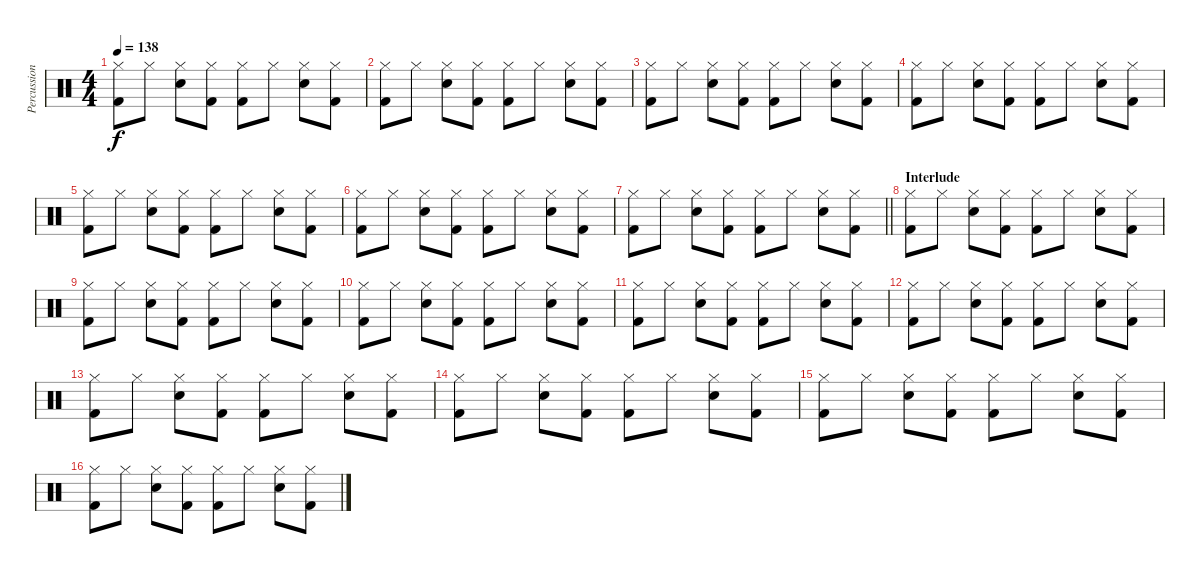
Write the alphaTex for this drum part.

\track ("Percussion" "Percussion") {instrument percussion}
\staff {score}
\articulation defaults
\ts (4 4)
\tempo 138
\clef neutral
\ks c
("Hi-Hat (closed)" "Kick (hit) 2").8{dy f} "Hi-Hat (closed)".8 ("Hi-Hat (closed)" "Electric Snare (hit)").8 ("Hi-Hat (closed)" "Kick (hit) 2").8 ("Hi-Hat (closed)" "Kick (hit) 2").8 "Hi-Hat (closed)".8 ("Hi-Hat (closed)" "Electric Snare (hit)").8 ("Hi-Hat (closed)" "Kick (hit) 2").8 |
("Hi-Hat (closed)" "Kick (hit) 2").8 "Hi-Hat (closed)".8 ("Hi-Hat (closed)" "Electric Snare (hit)").8 ("Hi-Hat (closed)" "Kick (hit) 2").8 ("Hi-Hat (closed)" "Kick (hit) 2").8 "Hi-Hat (closed)".8 ("Hi-Hat (closed)" "Electric Snare (hit)").8 ("Hi-Hat (closed)" "Kick (hit) 2").8 |
("Hi-Hat (closed)" "Kick (hit) 2").8 "Hi-Hat (closed)".8 ("Hi-Hat (closed)" "Electric Snare (hit)").8 ("Hi-Hat (closed)" "Kick (hit) 2").8 ("Hi-Hat (closed)" "Kick (hit) 2").8 "Hi-Hat (closed)".8 ("Hi-Hat (closed)" "Electric Snare (hit)").8 ("Hi-Hat (closed)" "Kick (hit) 2").8 |
("Hi-Hat (closed)" "Kick (hit) 2").8 "Hi-Hat (closed)".8 ("Hi-Hat (closed)" "Electric Snare (hit)").8 ("Hi-Hat (closed)" "Kick (hit) 2").8 ("Hi-Hat (closed)" "Kick (hit) 2").8 "Hi-Hat (closed)".8 ("Hi-Hat (closed)" "Electric Snare (hit)").8 ("Hi-Hat (closed)" "Kick (hit) 2").8 |
("Hi-Hat (closed)" "Kick (hit) 2").8 "Hi-Hat (closed)".8 ("Hi-Hat (closed)" "Electric Snare (hit)").8 ("Hi-Hat (closed)" "Kick (hit) 2").8 ("Hi-Hat (closed)" "Kick (hit) 2").8 "Hi-Hat (closed)".8 ("Hi-Hat (closed)" "Electric Snare (hit)").8 ("Hi-Hat (closed)" "Kick (hit) 2").8 |
("Hi-Hat (closed)" "Kick (hit) 2").8 "Hi-Hat (closed)".8 ("Hi-Hat (closed)" "Electric Snare (hit)").8 ("Hi-Hat (closed)" "Kick (hit) 2").8 ("Hi-Hat (closed)" "Kick (hit) 2").8 "Hi-Hat (closed)".8 ("Hi-Hat (closed)" "Electric Snare (hit)").8 ("Hi-Hat (closed)" "Kick (hit) 2").8 |
\barLineRight lightlight
("Hi-Hat (closed)" "Kick (hit) 2").8 "Hi-Hat (closed)".8 ("Hi-Hat (closed)" "Electric Snare (hit)").8 ("Hi-Hat (closed)" "Kick (hit) 2").8 ("Hi-Hat (closed)" "Kick (hit) 2").8 "Hi-Hat (closed)".8 ("Hi-Hat (closed)" "Electric Snare (hit)").8 ("Hi-Hat (closed)" "Kick (hit) 2").8 |
\section ("" "Interlude")
("Hi-Hat (closed)" "Kick (hit) 2").8 "Hi-Hat (closed)".8 ("Hi-Hat (closed)" "Electric Snare (hit)").8 ("Hi-Hat (closed)" "Kick (hit) 2").8 ("Hi-Hat (closed)" "Kick (hit) 2").8 "Hi-Hat (closed)".8 ("Hi-Hat (closed)" "Electric Snare (hit)").8 ("Hi-Hat (closed)" "Kick (hit) 2").8 |
("Hi-Hat (closed)" "Kick (hit) 2").8 "Hi-Hat (closed)".8 ("Hi-Hat (closed)" "Electric Snare (hit)").8 ("Hi-Hat (closed)" "Kick (hit) 2").8 ("Hi-Hat (closed)" "Kick (hit) 2").8 "Hi-Hat (closed)".8 ("Hi-Hat (closed)" "Electric Snare (hit)").8 ("Hi-Hat (closed)" "Kick (hit) 2").8 |
("Hi-Hat (closed)" "Kick (hit) 2").8 "Hi-Hat (closed)".8 ("Hi-Hat (closed)" "Electric Snare (hit)").8 ("Hi-Hat (closed)" "Kick (hit) 2").8 ("Hi-Hat (closed)" "Kick (hit) 2").8 "Hi-Hat (closed)".8 ("Hi-Hat (closed)" "Electric Snare (hit)").8 ("Hi-Hat (closed)" "Kick (hit) 2").8 |
("Hi-Hat (closed)" "Kick (hit) 2").8 "Hi-Hat (closed)".8 ("Hi-Hat (closed)" "Electric Snare (hit)").8 ("Hi-Hat (closed)" "Kick (hit) 2").8 ("Hi-Hat (closed)" "Kick (hit) 2").8 "Hi-Hat (closed)".8 ("Hi-Hat (closed)" "Electric Snare (hit)").8 ("Hi-Hat (closed)" "Kick (hit) 2").8 |
("Hi-Hat (closed)" "Kick (hit) 2").8 "Hi-Hat (closed)".8 ("Hi-Hat (closed)" "Electric Snare (hit)").8 ("Hi-Hat (closed)" "Kick (hit) 2").8 ("Hi-Hat (closed)" "Kick (hit) 2").8 "Hi-Hat (closed)".8 ("Hi-Hat (closed)" "Electric Snare (hit)").8 ("Hi-Hat (closed)" "Kick (hit) 2").8 |
("Hi-Hat (closed)" "Kick (hit) 2").8 "Hi-Hat (closed)".8 ("Hi-Hat (closed)" "Electric Snare (hit)").8 ("Hi-Hat (closed)" "Kick (hit) 2").8 ("Hi-Hat (closed)" "Kick (hit) 2").8 "Hi-Hat (closed)".8 ("Hi-Hat (closed)" "Electric Snare (hit)").8 ("Hi-Hat (closed)" "Kick (hit) 2").8 |
("Hi-Hat (closed)" "Kick (hit) 2").8 "Hi-Hat (closed)".8 ("Hi-Hat (closed)" "Electric Snare (hit)").8 ("Hi-Hat (closed)" "Kick (hit) 2").8 ("Hi-Hat (closed)" "Kick (hit) 2").8 "Hi-Hat (closed)".8 ("Hi-Hat (closed)" "Electric Snare (hit)").8 ("Hi-Hat (closed)" "Kick (hit) 2").8 |
("Hi-Hat (closed)" "Kick (hit) 2").8 "Hi-Hat (closed)".8 ("Hi-Hat (closed)" "Electric Snare (hit)").8 ("Hi-Hat (closed)" "Kick (hit) 2").8 ("Hi-Hat (closed)" "Kick (hit) 2").8 "Hi-Hat (closed)".8 ("Hi-Hat (closed)" "Electric Snare (hit)").8 ("Hi-Hat (closed)" "Kick (hit) 2").8 |
("Hi-Hat (closed)" "Kick (hit) 2").8 "Hi-Hat (closed)".8 ("Hi-Hat (closed)" "Electric Snare (hit)").8 ("Hi-Hat (closed)" "Kick (hit) 2").8 ("Hi-Hat (closed)" "Kick (hit) 2").8 "Hi-Hat (closed)".8 ("Hi-Hat (closed)" "Electric Snare (hit)").8 ("Hi-Hat (closed)" "Kick (hit) 2").8
